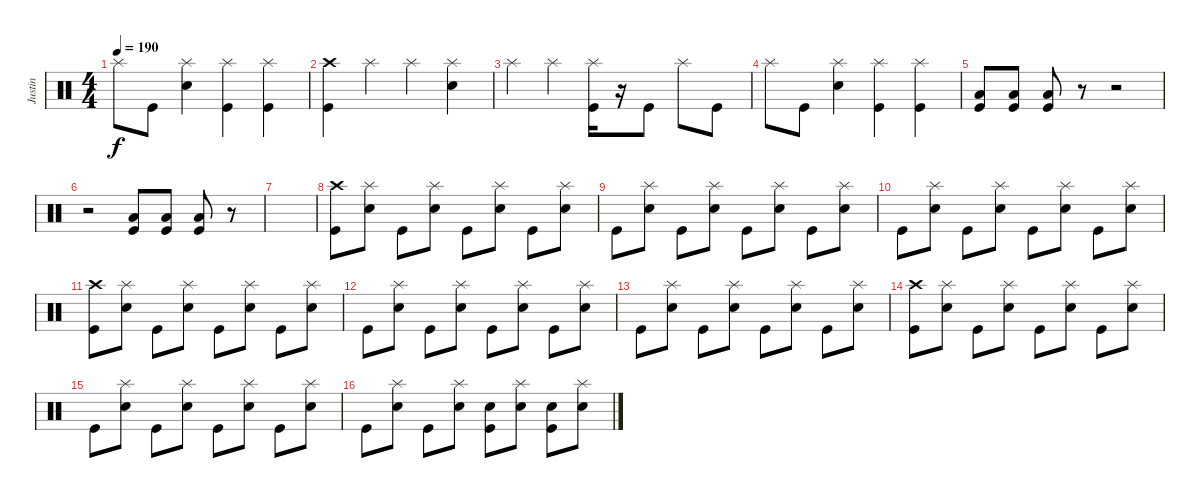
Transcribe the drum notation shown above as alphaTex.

\track ("Justin" "Justin") {instrument percussion}
\staff {score}
\articulation defaults
\ts (4 4)
\tempo 190
\clef neutral
\ks c "Splash (hit)".8{dy f} "Kick (hit)".8
("Splash (hit)" "Electric Snare (hit)").4 ("Splash (hit)" "Kick (hit)").4 ("Splash (hit)" "Kick (hit)").4 |
("Crash high (hit)" "Kick (hit)").4 "Splash (hit)".4 "Splash (hit)".4 ("Splash (hit)" "Electric Snare (hit)").4 |
"Splash (hit)".4 "Splash (hit)".4 ("Splash (hit)" "Kick (hit)").16 r.16 "Kick (hit)".8 "Splash (hit)".8 "Kick (hit)".8 |
"Splash (hit)".8 "Kick (hit)".8 ("Splash (hit)" "Electric Snare (hit)").4 ("Splash (hit)" "Kick (hit)").4 ("Splash (hit)" "Kick (hit)").4 |
("Low Floor Tom (hit)" "Kick (hit)").8 ("Low Floor Tom (hit)" "Kick (hit)").8 ("Low Floor Tom (hit)" "Kick (hit)").8 r.8 r.2 |
r.2 ("Low Floor Tom (hit)" "Kick (hit)").8 ("Low Floor Tom (hit)" "Kick (hit)").8 ("Low Floor Tom (hit)" "Kick (hit)").8 r.8 |
|
("Crash high (hit)" "Kick (hit)").8 ("Splash (hit)" "Electric Snare (hit)").8 "Kick (hit)".8 ("Splash (hit)" "Electric Snare (hit)").8 "Kick (hit)".8 ("Splash (hit)" "Electric Snare (hit)").8 "Kick (hit)".8 ("Splash (hit)" "Electric Snare (hit)").8 |
"Kick (hit)".8 ("Splash (hit)" "Electric Snare (hit)").8 "Kick (hit)".8 ("Splash (hit)" "Electric Snare (hit)").8 "Kick (hit)".8 ("Splash (hit)" "Electric Snare (hit)").8 "Kick (hit)".8 ("Splash (hit)" "Electric Snare (hit)").8 |
"Kick (hit)".8 ("Splash (hit)" "Electric Snare (hit)").8 "Kick (hit)".8 ("Splash (hit)" "Electric Snare (hit)").8 "Kick (hit)".8 ("Splash (hit)" "Electric Snare (hit)").8 "Kick (hit)".8 ("Splash (hit)" "Electric Snare (hit)").8 |
("Crash high (hit)" "Kick (hit)").8 ("Splash (hit)" "Electric Snare (hit)").8 "Kick (hit)".8 ("Splash (hit)" "Electric Snare (hit)").8 "Kick (hit)".8 ("Splash (hit)" "Electric Snare (hit)").8 "Kick (hit)".8 ("Splash (hit)" "Electric Snare (hit)").8 |
"Kick (hit)".8 ("Splash (hit)" "Electric Snare (hit)").8 "Kick (hit)".8 ("Splash (hit)" "Electric Snare (hit)").8 "Kick (hit)".8 ("Splash (hit)" "Electric Snare (hit)").8 "Kick (hit)".8 ("Splash (hit)" "Electric Snare (hit)").8 |
"Kick (hit)".8 ("Splash (hit)" "Electric Snare (hit)").8 "Kick (hit)".8 ("Splash (hit)" "Electric Snare (hit)").8 "Kick (hit)".8 ("Splash (hit)" "Electric Snare (hit)").8 "Kick (hit)".8 ("Splash (hit)" "Electric Snare (hit)").8 |
("Crash high (hit)" "Kick (hit)").8 ("Splash (hit)" "Electric Snare (hit)").8 "Kick (hit)".8 ("Splash (hit)" "Electric Snare (hit)").8 "Kick (hit)".8 ("Splash (hit)" "Electric Snare (hit)").8 "Kick (hit)".8 ("Splash (hit)" "Electric Snare (hit)").8 |
"Kick (hit)".8 ("Splash (hit)" "Electric Snare (hit)").8 "Kick (hit)".8 ("Splash (hit)" "Electric Snare (hit)").8 "Kick (hit)".8 ("Splash (hit)" "Electric Snare (hit)").8 "Kick (hit)".8 ("Splash (hit)" "Electric Snare (hit)").8 |
"Kick (hit)".8 ("Splash (hit)" "Electric Snare (hit)").8 "Kick (hit)".8 ("Splash (hit)" "Electric Snare (hit)").8 ("Electric Snare (hit)" "Kick (hit)").8 ("Splash (hit)" "Electric Snare (hit)").8 ("Electric Snare (hit)" "Kick (hit)").8 ("Splash (hit)" "Electric Snare (hit)").8
